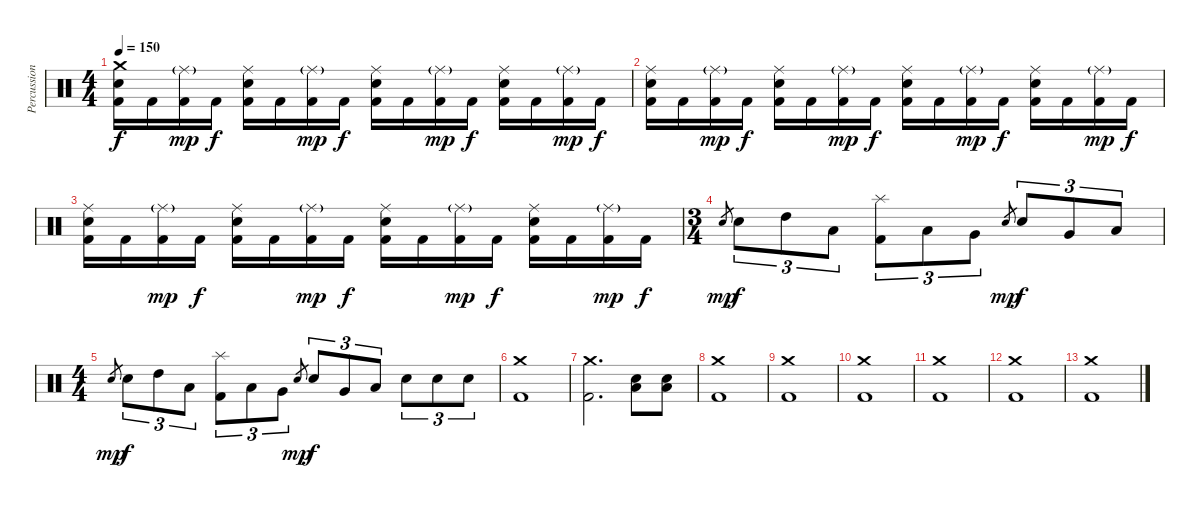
\track ("Percussions" "Percussion") {instrument percussion}
\staff {score}
\articulation defaults
\ts (4 4)
\tempo 150
\clef neutral
\ks c
("Crash medium (hit)" "Snare (hit) 2" "Kick (hit) 2").16{dy f} "Kick (hit) 2".16 ("Ride (middle)"{g} "Kick (hit) 2").16{dy mp} "Kick (hit) 2".16{dy f} ("Ride (middle)" "Snare (hit) 2" "Kick (hit) 2").16 "Kick (hit) 2".16 ("Ride (middle)"{g} "Kick (hit) 2").16{dy mp} "Kick (hit) 2".16{dy f} ("Ride (middle)" "Snare (hit) 2" "Kick (hit) 2").16 "Kick (hit) 2".16 ("Ride (middle)"{g} "Kick (hit) 2").16{dy mp} "Kick (hit) 2".16{dy f} ("Ride (middle)" "Snare (hit) 2" "Kick (hit) 2").16 "Kick (hit) 2".16 ("Ride (middle)"{g} "Kick (hit) 2").16{dy mp} "Kick (hit) 2".16{dy f} |
("Ride (middle)" "Snare (hit) 2" "Kick (hit) 2").16 "Kick (hit) 2".16 ("Ride (middle)"{g} "Kick (hit) 2").16{dy mp} "Kick (hit) 2".16{dy f} ("Ride (middle)" "Snare (hit) 2" "Kick (hit) 2").16 "Kick (hit) 2".16 ("Ride (middle)"{g} "Kick (hit) 2").16{dy mp} "Kick (hit) 2".16{dy f} ("Ride (middle)" "Snare (hit) 2" "Kick (hit) 2").16 "Kick (hit) 2".16 ("Ride (middle)"{g} "Kick (hit) 2").16{dy mp} "Kick (hit) 2".16{dy f} ("Ride (middle)" "Snare (hit) 2" "Kick (hit) 2").16 "Kick (hit) 2".16 ("Ride (middle)"{g} "Kick (hit) 2").16{dy mp} "Kick (hit) 2".16{dy f} |
("Ride (middle)" "Snare (hit) 2" "Kick (hit) 2").16 "Kick (hit) 2".16 ("Ride (middle)"{g} "Kick (hit) 2").16{dy mp} "Kick (hit) 2".16{dy f} ("Ride (middle)" "Snare (hit) 2" "Kick (hit) 2").16 "Kick (hit) 2".16 ("Ride (middle)"{g} "Kick (hit) 2").16{dy mp} "Kick (hit) 2".16{dy f} ("Ride (middle)" "Snare (hit) 2" "Kick (hit) 2").16 "Kick (hit) 2".16 ("Ride (middle)"{g} "Kick (hit) 2").16{dy mp} "Kick (hit) 2".16{dy f} ("Ride (middle)" "Snare (hit) 2" "Kick (hit) 2").16 "Kick (hit) 2".16 ("Ride (middle)"{g} "Kick (hit) 2").16{dy mp} "Kick (hit) 2".16{dy f} |
\ts (3 4)
"Snare (hit) 2".8{gr dy mp} "Snare (hit) 2".8{tu (3 2) dy f} "High Tom (hit)".8{tu (3 2)} "Low Tom (hit)".8{tu (3 2)} ("Splash (hit)" "Kick (hit) 2").8{tu (3 2)} "Low Tom (hit)".8{tu (3 2)} "Very Low Tom (hit)".8{tu (3 2)} "Snare (hit) 2".8{gr dy mp} "Snare (hit) 2".8{tu (3 2) dy f} "Very Low Tom (hit)".8{tu (3 2)} "Low Floor Tom (hit)".8{tu (3 2)} |
\ts (4 4)
"Snare (hit) 2".8{gr dy mp} "Snare (hit) 2".8{tu (3 2) dy f} "High Tom (hit)".8{tu (3 2)} "Low Tom (hit)".8{tu (3 2)} ("Splash (hit)" "Kick (hit) 2").8{tu (3 2)} "Low Tom (hit)".8{tu (3 2)} "Very Low Tom (hit)".8{tu (3 2)} "Snare (hit) 2".8{gr dy mp} "Snare (hit) 2".8{tu (3 2) dy f} "Very Low Tom (hit)".8{tu (3 2)} "Low Floor Tom (hit)".8{tu (3 2)} "Snare (hit) 2".8{tu (3 2)} "Snare (hit) 2".8{tu (3 2)} "Snare (hit) 2".8{tu (3 2)} |
("Crash medium (hit)" "Kick (hit) 2").1 |
("Crash medium (hit)" "Kick (hit) 2").2{d} ("Snare (hit) 2" "Low Floor Tom (hit)").8 ("Snare (hit) 2" "Low Floor Tom (hit)").8 |
("Crash medium (hit)" "Kick (hit) 2").1 |
("Crash medium (hit)" "Kick (hit) 2").1 |
("Crash medium (hit)" "Kick (hit) 2").1 |
("Crash medium (hit)" "Kick (hit) 2").1 |
("Crash medium (hit)" "Kick (hit) 2").1 |
("Crash medium (hit)" "Kick (hit) 2").1
